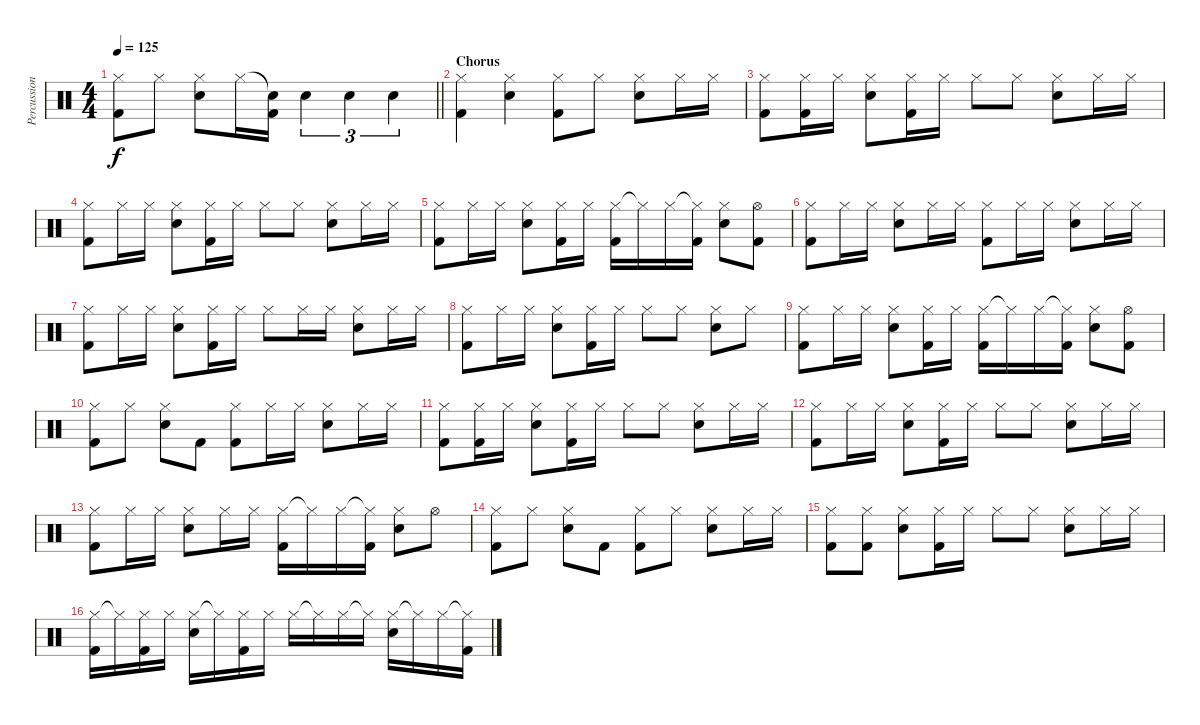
\track ("Percussion" "Percussion") {instrument percussion}
\staff {score}
\articulation defaults
\ts (4 4)
\tempo 125
\clef neutral
\barLineRight lightlight
\ks c
("Hi-Hat (closed)" "Kick (hit) 2").8{dy f} "Hi-Hat (closed)".8 ("Hi-Hat (closed)" "Electric Snare (hit)").8 "Hi-Hat (closed)".16 ("Snare (hit)"{t} "Kick (hit) 2").16 "Electric Snare (hit)".4{tu (3 2)} "Electric Snare (hit)".4{tu (3 2)} "Electric Snare (hit)".4{tu (3 2)} |
\section ("" "Chorus")
("Hi-Hat (closed)" "Kick (hit) 2").4 ("Hi-Hat (closed)" "Electric Snare (hit)").4 ("Hi-Hat (closed)" "Kick (hit) 2").8 "Hi-Hat (closed)".8 ("Hi-Hat (closed)" "Electric Snare (hit)").8 "Hi-Hat (closed)".16 "Hi-Hat (closed)".16 |
("Hi-Hat (closed)" "Kick (hit) 2").8 ("Hi-Hat (closed)" "Kick (hit) 2").16 "Hi-Hat (closed)".16 ("Hi-Hat (closed)" "Electric Snare (hit)").8 ("Hi-Hat (closed)" "Kick (hit) 2").16 "Hi-Hat (closed)".16 "Hi-Hat (closed)".8 "Hi-Hat (closed)".8 ("Hi-Hat (closed)" "Electric Snare (hit)").8 "Hi-Hat (closed)".16 "Hi-Hat (closed)".16 |
("Hi-Hat (closed)" "Kick (hit) 2").8 "Hi-Hat (closed)".16 "Hi-Hat (closed)".16 ("Hi-Hat (closed)" "Electric Snare (hit)").8 ("Hi-Hat (closed)" "Kick (hit) 2").16 "Hi-Hat (closed)".16 "Hi-Hat (closed)".8 "Hi-Hat (closed)".8 ("Hi-Hat (closed)" "Electric Snare (hit)").8 "Hi-Hat (closed)".16 "Hi-Hat (closed)".16 |
("Hi-Hat (closed)" "Kick (hit) 2").8 "Hi-Hat (closed)".16 "Hi-Hat (closed)".16 ("Hi-Hat (closed)" "Electric Snare (hit)").8 ("Hi-Hat (closed)" "Kick (hit) 2").16 "Hi-Hat (closed)".16 ("Hi-Hat (closed)" "Kick (hit) 2").16 "Hi-Hat (closed)"{t}.16 "Hi-Hat (closed)".16 ("Hi-Hat (closed)"{t} "Kick (hit) 2").16 ("Hi-Hat (closed)" "Electric Snare (hit)").8 ("Hi-Hat (open)" "Kick (hit) 2").8 |
("Hi-Hat (closed)" "Kick (hit) 2").8 "Hi-Hat (closed)".16 "Hi-Hat (closed)".16 ("Hi-Hat (closed)" "Electric Snare (hit)").8 "Hi-Hat (closed)".16 "Hi-Hat (closed)".16 ("Hi-Hat (closed)" "Kick (hit) 2").8 "Hi-Hat (closed)".16 "Hi-Hat (closed)".16 ("Hi-Hat (closed)" "Electric Snare (hit)").8 "Hi-Hat (closed)".16 "Hi-Hat (closed)".16 |
("Hi-Hat (closed)" "Kick (hit) 2").8 "Hi-Hat (closed)".16 "Hi-Hat (closed)".16 ("Hi-Hat (closed)" "Electric Snare (hit)").8 ("Hi-Hat (closed)" "Kick (hit) 2").16 "Hi-Hat (closed)".16 "Hi-Hat (closed)".8 "Hi-Hat (closed)".16 "Hi-Hat (closed)".16 ("Hi-Hat (closed)" "Electric Snare (hit)").8 "Hi-Hat (closed)".16 "Hi-Hat (closed)".16 |
("Hi-Hat (closed)" "Kick (hit) 2").8 "Hi-Hat (closed)".16 "Hi-Hat (closed)".16 ("Hi-Hat (closed)" "Electric Snare (hit)").8 ("Hi-Hat (closed)" "Kick (hit) 2").16 "Hi-Hat (closed)".16 "Hi-Hat (closed)".8 "Hi-Hat (closed)".8 ("Hi-Hat (closed)" "Electric Snare (hit)").8 "Hi-Hat (closed)".8 |
("Hi-Hat (closed)" "Kick (hit) 2").8 "Hi-Hat (closed)".16 "Hi-Hat (closed)".16 ("Hi-Hat (closed)" "Electric Snare (hit)").8 ("Hi-Hat (closed)" "Kick (hit) 2").16 "Hi-Hat (closed)".16 ("Hi-Hat (closed)" "Kick (hit) 2").16 "Hi-Hat (closed)"{t}.16 "Hi-Hat (closed)".16 ("Hi-Hat (closed)"{t} "Kick (hit) 2").16 ("Hi-Hat (closed)" "Electric Snare (hit)").8 ("Hi-Hat (open)" "Kick (hit) 2").8 |
("Hi-Hat (closed)" "Kick (hit) 2").8 "Hi-Hat (closed)".8 ("Hi-Hat (closed)" "Electric Snare (hit)").8 "Kick (hit) 2".8 ("Hi-Hat (closed)" "Kick (hit) 2").8 "Hi-Hat (closed)".16 "Hi-Hat (closed)".16 ("Hi-Hat (closed)" "Electric Snare (hit)").8 "Hi-Hat (closed)".16 "Hi-Hat (closed)".16 |
("Hi-Hat (closed)" "Kick (hit) 2").8 ("Hi-Hat (closed)" "Kick (hit) 2").16 "Hi-Hat (closed)".16 ("Hi-Hat (closed)" "Electric Snare (hit)").8 ("Hi-Hat (closed)" "Kick (hit) 2").16 "Hi-Hat (closed)".16 "Hi-Hat (closed)".8 "Hi-Hat (closed)".8 ("Hi-Hat (closed)" "Electric Snare (hit)").8 "Hi-Hat (closed)".16 "Hi-Hat (closed)".16 |
("Hi-Hat (closed)" "Kick (hit) 2").8 "Hi-Hat (closed)".16 "Hi-Hat (closed)".16 ("Hi-Hat (closed)" "Electric Snare (hit)").8 ("Hi-Hat (closed)" "Kick (hit) 2").16 "Hi-Hat (closed)".16 "Hi-Hat (closed)".8 "Hi-Hat (closed)".8 ("Hi-Hat (closed)" "Electric Snare (hit)").8 "Hi-Hat (closed)".16 "Hi-Hat (closed)".16 |
("Hi-Hat (closed)" "Kick (hit) 2").8 "Hi-Hat (closed)".16 "Hi-Hat (closed)".16 ("Hi-Hat (closed)" "Electric Snare (hit)").8 "Hi-Hat (closed)".16 "Hi-Hat (closed)".16 ("Hi-Hat (closed)" "Kick (hit) 2").16 "Hi-Hat (closed)"{t}.16 "Hi-Hat (closed)".16 ("Hi-Hat (closed)"{t} "Kick (hit) 2").16 ("Hi-Hat (closed)" "Electric Snare (hit)").8 "Hi-Hat (open)".8 |
("Hi-Hat (closed)" "Kick (hit) 2").8 "Hi-Hat (closed)".8 ("Hi-Hat (closed)" "Electric Snare (hit)").8 "Kick (hit) 2".8 ("Hi-Hat (closed)" "Kick (hit) 2").8 "Hi-Hat (closed)".8 ("Hi-Hat (closed)" "Electric Snare (hit)").8 "Hi-Hat (closed)".16 "Hi-Hat (closed)".16 |
("Hi-Hat (closed)" "Kick (hit) 2").8 ("Hi-Hat (closed)" "Kick (hit) 2").8 ("Hi-Hat (closed)" "Electric Snare (hit)").8 ("Hi-Hat (closed)" "Kick (hit) 2").16 "Hi-Hat (closed)".16 "Hi-Hat (closed)".8 "Hi-Hat (closed)".8 ("Hi-Hat (closed)" "Electric Snare (hit)").8 "Hi-Hat (closed)".16 "Hi-Hat (closed)".16 |
("Hi-Hat (closed)" "Kick (hit) 2").16 "Hi-Hat (closed)"{t}.16 ("Hi-Hat (closed)" "Kick (hit) 2").16 "Hi-Hat (closed)".16 ("Hi-Hat (closed)" "Electric Snare (hit)").16 "Hi-Hat (closed)"{t}.16 ("Hi-Hat (closed)" "Kick (hit) 2").16 "Hi-Hat (closed)".16 "Hi-Hat (closed)".16 "Hi-Hat (closed)"{t}.16 "Hi-Hat (closed)".16 "Hi-Hat (closed)"{t}.16 ("Hi-Hat (closed)" "Electric Snare (hit)").16 "Hi-Hat (closed)"{t}.16 "Hi-Hat (closed)".16 ("Hi-Hat (closed)"{t} "Kick (hit) 2").16
